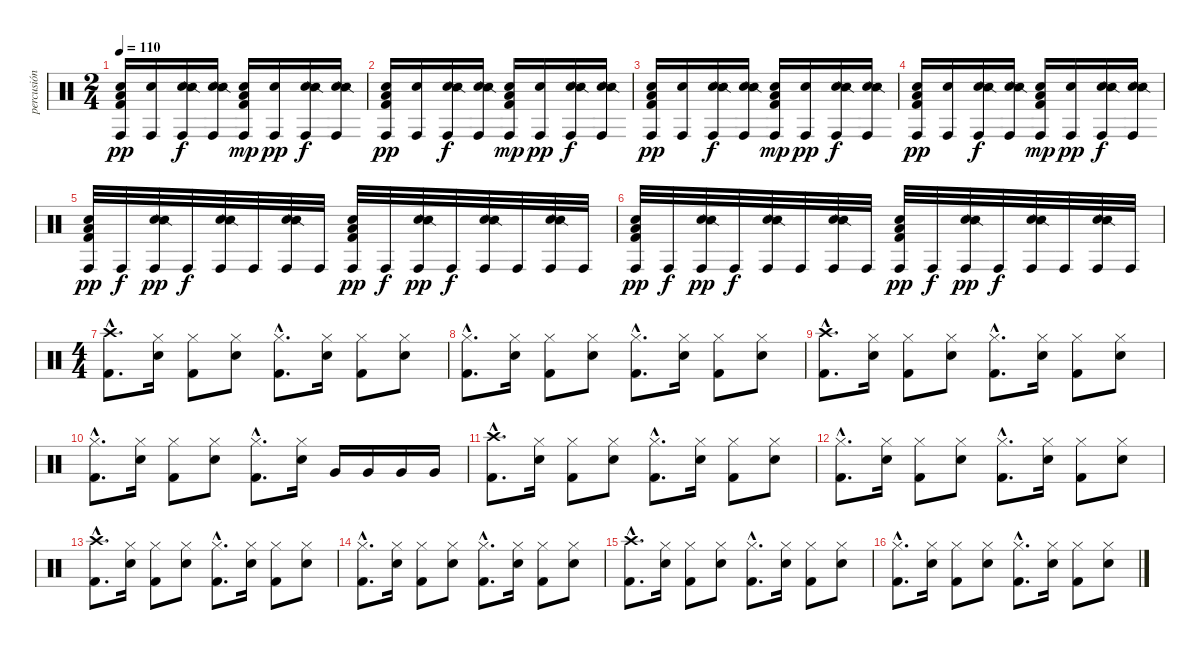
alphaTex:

\track ("percusión" "percusión") {instrument percussion}
\staff {score}
\articulation defaults
\ts (2 4)
\tempo 110
\clef neutral
\ks c
("Electric Snare (hit)" "Kick (hit) 2" "Conga high (hit)" "Low Floor Tom (hit)").16{dy pp} ("Electric Snare (hit)" "Conga high (hit)").16 ("Electric Snare (hit)" "Snare (side stick) 2" "Conga high (hit)").16{dy f} ("Electric Snare (hit)" "Snare (side stick) 2" "Conga high (hit)").16 ("Electric Snare (hit)" "Conga high (hit)" "Kick (hit) 2" "Low Floor Tom (hit)").16{dy mp} ("Electric Snare (hit)" "Conga high (hit)").16{dy pp} ("Electric Snare (hit)" "Snare (side stick) 2" "Conga high (hit)").16{dy f} ("Electric Snare (hit)" "Snare (side stick) 2" "Conga high (hit)").16 |
("Electric Snare (hit)" "Kick (hit) 2" "Conga high (hit)" "Low Floor Tom (hit)").16{dy pp} ("Electric Snare (hit)" "Conga high (hit)").16 ("Electric Snare (hit)" "Snare (side stick) 2" "Conga high (hit)").16{dy f} ("Electric Snare (hit)" "Snare (side stick) 2" "Conga high (hit)").16 ("Electric Snare (hit)" "Conga high (hit)" "Kick (hit) 2" "Low Floor Tom (hit)").16{dy mp} ("Electric Snare (hit)" "Conga high (hit)").16{dy pp} ("Electric Snare (hit)" "Snare (side stick) 2" "Conga high (hit)").16{dy f} ("Electric Snare (hit)" "Snare (side stick) 2" "Conga high (hit)").16 |
("Electric Snare (hit)" "Kick (hit) 2" "Conga high (hit)" "Low Floor Tom (hit)").16{dy pp} ("Electric Snare (hit)" "Conga high (hit)").16 ("Electric Snare (hit)" "Snare (side stick) 2" "Conga high (hit)").16{dy f} ("Electric Snare (hit)" "Snare (side stick) 2" "Conga high (hit)").16 ("Electric Snare (hit)" "Conga high (hit)" "Kick (hit) 2" "Low Floor Tom (hit)").16{dy mp} ("Electric Snare (hit)" "Conga high (hit)").16{dy pp} ("Electric Snare (hit)" "Snare (side stick) 2" "Conga high (hit)").16{dy f} ("Electric Snare (hit)" "Snare (side stick) 2" "Conga high (hit)").16 |
("Electric Snare (hit)" "Kick (hit) 2" "Conga high (hit)" "Low Floor Tom (hit)").16{dy pp} ("Electric Snare (hit)" "Conga high (hit)").16 ("Electric Snare (hit)" "Snare (side stick) 2" "Conga high (hit)").16{dy f} ("Electric Snare (hit)" "Snare (side stick) 2" "Conga high (hit)").16 ("Electric Snare (hit)" "Conga high (hit)" "Kick (hit) 2" "Low Floor Tom (hit)").16{dy mp} ("Electric Snare (hit)" "Conga high (hit)").16{dy pp} ("Electric Snare (hit)" "Snare (side stick) 2" "Conga high (hit)").16{dy f} ("Electric Snare (hit)" "Snare (side stick) 2" "Conga high (hit)").16 |
("Conga high (hit)" "Electric Snare (hit)" "Kick (hit) 2" "Low Floor Tom (hit)").32{dy pp} "Conga high (hit)".32{dy f} ("Conga high (hit)" "Electric Snare (hit)" "Snare (side stick) 2").32{dy pp} "Conga high (hit)".32{dy f} ("Conga high (hit)" "Electric Snare (hit)" "Snare (side stick) 2").32 "Conga high (hit)".32 ("Conga high (hit)" "Electric Snare (hit)" "Snare (side stick) 2").32 "Conga high (hit)".32 ("Conga high (hit)" "Electric Snare (hit)" "Kick (hit) 2" "Low Floor Tom (hit)").32{dy pp} "Conga high (hit)".32{dy f} ("Conga high (hit)" "Electric Snare (hit)" "Snare (side stick) 2").32{dy pp} "Conga high (hit)".32{dy f} ("Conga high (hit)" "Electric Snare (hit)" "Snare (side stick) 2").32 "Conga high (hit)".32 ("Conga high (hit)" "Electric Snare (hit)" "Snare (side stick) 2").32 "Conga high (hit)".32 |
("Conga high (hit)" "Electric Snare (hit)" "Kick (hit) 2" "Low Floor Tom (hit)").32{dy pp} "Conga high (hit)".32{dy f} ("Conga high (hit)" "Electric Snare (hit)" "Snare (side stick) 2").32{dy pp} "Conga high (hit)".32{dy f} ("Conga high (hit)" "Electric Snare (hit)" "Snare (side stick) 2").32 "Conga high (hit)".32 ("Conga high (hit)" "Electric Snare (hit)" "Snare (side stick) 2").32 "Conga high (hit)".32 ("Conga high (hit)" "Electric Snare (hit)" "Kick (hit) 2" "Low Floor Tom (hit)").32{dy pp} "Conga high (hit)".32{dy f} ("Conga high (hit)" "Electric Snare (hit)" "Snare (side stick) 2").32{dy pp} "Conga high (hit)".32{dy f} ("Conga high (hit)" "Electric Snare (hit)" "Snare (side stick) 2").32 "Conga high (hit)".32 ("Conga high (hit)" "Electric Snare (hit)" "Snare (side stick) 2").32 "Conga high (hit)".32 |
\ts (4 4)
("Kick (hit) 2"{hac} "Crash high (hit)"{hac}).8{d} ("Snare (hit) 2" "Hi-Hat (closed)").16 ("Kick (hit) 2" "Hi-Hat (closed)").8 ("Snare (hit) 2" "Hi-Hat (closed)").8 ("Kick (hit) 2"{hac} "Hi-Hat (closed)"{hac}).8{d} ("Snare (hit) 2" "Hi-Hat (closed)").16 ("Kick (hit) 2" "Hi-Hat (closed)").8 ("Snare (hit) 2" "Hi-Hat (closed)").8 |
("Kick (hit) 2"{hac} "Hi-Hat (closed)"{hac}).8{d} ("Snare (hit) 2" "Hi-Hat (closed)").16 ("Kick (hit) 2" "Hi-Hat (closed)").8 ("Snare (hit) 2" "Hi-Hat (closed)").8 ("Kick (hit) 2"{hac} "Hi-Hat (closed)"{hac}).8{d} ("Snare (hit) 2" "Hi-Hat (closed)").16 ("Kick (hit) 2" "Hi-Hat (closed)").8 ("Snare (hit) 2" "Hi-Hat (closed)").8 |
("Kick (hit) 2"{hac} "Crash high (hit)"{hac}).8{d} ("Snare (hit) 2" "Hi-Hat (closed)").16 ("Kick (hit) 2" "Hi-Hat (closed)").8 ("Snare (hit) 2" "Hi-Hat (closed)").8 ("Kick (hit) 2"{hac} "Hi-Hat (closed)"{hac}).8{d} ("Snare (hit) 2" "Hi-Hat (closed)").16 ("Kick (hit) 2" "Hi-Hat (closed)").8 ("Snare (hit) 2" "Hi-Hat (closed)").8 |
("Kick (hit) 2"{hac} "Hi-Hat (closed)"{hac}).8{d} ("Snare (hit) 2" "Hi-Hat (closed)").16 ("Kick (hit) 2" "Hi-Hat (closed)").8 ("Snare (hit) 2" "Hi-Hat (closed)").8 ("Kick (hit) 2"{hac} "Hi-Hat (closed)"{hac}).8{d} ("Snare (hit) 2" "Hi-Hat (closed)").16 "Very Low Tom (hit)".16 "Very Low Tom (hit)".16 "Very Low Tom (hit)".16 "Very Low Tom (hit)".16 |
("Kick (hit) 2"{hac} "Crash high (hit)"{hac}).8{d} ("Snare (hit) 2" "Hi-Hat (closed)").16 ("Kick (hit) 2" "Hi-Hat (closed)").8 ("Snare (hit) 2" "Hi-Hat (closed)").8 ("Kick (hit) 2"{hac} "Hi-Hat (closed)"{hac}).8{d} ("Snare (hit) 2" "Hi-Hat (closed)").16 ("Kick (hit) 2" "Hi-Hat (closed)").8 ("Snare (hit) 2" "Hi-Hat (closed)").8 |
("Kick (hit) 2"{hac} "Hi-Hat (closed)"{hac}).8{d} ("Snare (hit) 2" "Hi-Hat (closed)").16 ("Kick (hit) 2" "Hi-Hat (closed)").8 ("Snare (hit) 2" "Hi-Hat (closed)").8 ("Kick (hit) 2"{hac} "Hi-Hat (closed)"{hac}).8{d} ("Snare (hit) 2" "Hi-Hat (closed)").16 ("Kick (hit) 2" "Hi-Hat (closed)").8 ("Snare (hit) 2" "Hi-Hat (closed)").8 |
("Kick (hit) 2"{hac} "Crash high (hit)"{hac}).8{d} ("Snare (hit) 2" "Hi-Hat (closed)").16 ("Kick (hit) 2" "Hi-Hat (closed)").8 ("Snare (hit) 2" "Hi-Hat (closed)").8 ("Kick (hit) 2"{hac} "Hi-Hat (closed)"{hac}).8{d} ("Snare (hit) 2" "Hi-Hat (closed)").16 ("Kick (hit) 2" "Hi-Hat (closed)").8 ("Snare (hit) 2" "Hi-Hat (closed)").8 |
("Kick (hit) 2"{hac} "Hi-Hat (closed)"{hac}).8{d} ("Snare (hit) 2" "Hi-Hat (closed)").16 ("Kick (hit) 2" "Hi-Hat (closed)").8 ("Snare (hit) 2" "Hi-Hat (closed)").8 ("Kick (hit) 2"{hac} "Hi-Hat (closed)"{hac}).8{d} ("Snare (hit) 2" "Hi-Hat (closed)").16 ("Kick (hit) 2" "Hi-Hat (closed)").8 ("Snare (hit) 2" "Hi-Hat (closed)").8 |
("Kick (hit) 2"{hac} "Crash high (hit)"{hac}).8{d} ("Snare (hit) 2" "Hi-Hat (closed)").16 ("Kick (hit) 2" "Hi-Hat (closed)").8 ("Snare (hit) 2" "Hi-Hat (closed)").8 ("Kick (hit) 2"{hac} "Hi-Hat (closed)"{hac}).8{d} ("Snare (hit) 2" "Hi-Hat (closed)").16 ("Kick (hit) 2" "Hi-Hat (closed)").8 ("Snare (hit) 2" "Hi-Hat (closed)").8 |
("Kick (hit) 2"{hac} "Hi-Hat (closed)"{hac}).8{d} ("Snare (hit) 2" "Hi-Hat (closed)").16 ("Kick (hit) 2" "Hi-Hat (closed)").8 ("Snare (hit) 2" "Hi-Hat (closed)").8 ("Kick (hit) 2"{hac} "Hi-Hat (closed)"{hac}).8{d} ("Snare (hit) 2" "Hi-Hat (closed)").16 ("Kick (hit) 2" "Hi-Hat (closed)").8 ("Snare (hit) 2" "Hi-Hat (closed)").8
